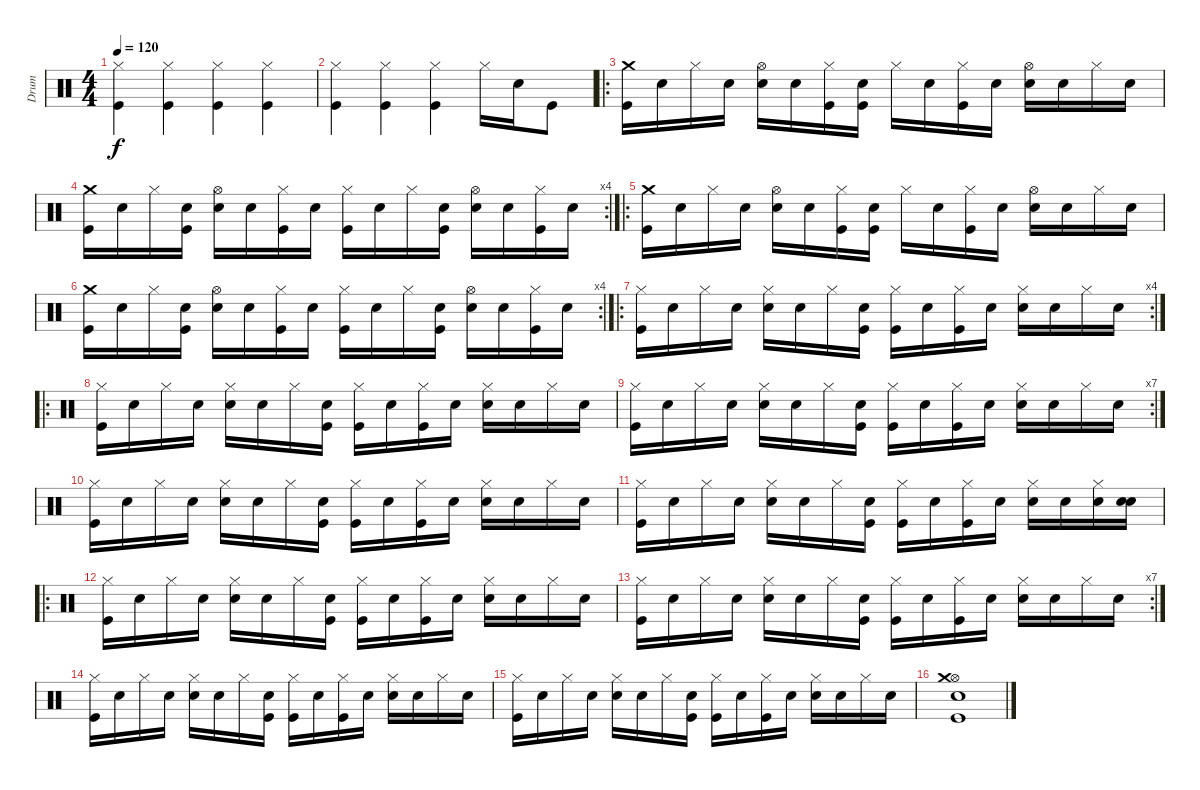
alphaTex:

\track ("Drum" "Drum") {instrument percussion}
\staff {score}
\articulation defaults
\ts (4 4)
\tempo 120
\clef neutral
\ks c
("Hi-Hat (closed)" "Kick (hit)").4{dy f} ("Hi-Hat (closed)" "Kick (hit)").4 ("Hi-Hat (closed)" "Kick (hit)").4 ("Hi-Hat (closed)" "Kick (hit)").4 |
("Hi-Hat (closed)" "Kick (hit)").4 ("Hi-Hat (closed)" "Kick (hit)").4 ("Hi-Hat (closed)" "Kick (hit)").4 "Hi-Hat (closed)".16 "Electric Snare (hit)".16 "Kick (hit)".8 |
\ro
("Crash medium (hit)" "Kick (hit)").16 "Snare (hit)".16 "Hi-Hat (closed)".16 "Snare (hit)".16 ("Hi-Hat (open)" "Snare (hit) 2").16 "Snare (hit)".16 ("Hi-Hat (closed)" "Kick (hit)").16 ("Snare (hit)" "Kick (hit)").16 "Hi-Hat (closed)".16 "Snare (hit)".16 ("Hi-Hat (closed)" "Kick (hit)").16 "Snare (hit)".16 ("Hi-Hat (open)" "Snare (hit) 2").16 "Snare (hit)".16 "Hi-Hat (closed)".16 "Snare (hit)".16 |
\rc 4
("Crash medium (hit)" "Kick (hit)").16 "Snare (hit)".16 "Hi-Hat (closed)".16 ("Snare (hit)" "Kick (hit)").16 ("Hi-Hat (open)" "Snare (hit) 2").16 "Snare (hit)".16 ("Hi-Hat (closed)" "Kick (hit)").16 "Snare (hit)".16 ("Hi-Hat (closed)" "Kick (hit)").16 "Snare (hit)".16 "Hi-Hat (closed)".16 ("Snare (hit)" "Kick (hit)").16 ("Hi-Hat (open)" "Snare (hit) 2").16 "Snare (hit)".16 ("Hi-Hat (closed)" "Kick (hit)").16 "Snare (hit)".16 |
\ro
("Crash medium (hit)" "Kick (hit)").16 "Snare (hit)".16 "Hi-Hat (closed)".16 "Snare (hit)".16 ("Hi-Hat (open)" "Snare (hit) 2").16 "Snare (hit)".16 ("Hi-Hat (closed)" "Kick (hit)").16 ("Snare (hit)" "Kick (hit)").16 "Hi-Hat (closed)".16 "Snare (hit)".16 ("Hi-Hat (closed)" "Kick (hit)").16 "Snare (hit)".16 ("Hi-Hat (open)" "Snare (hit) 2").16 "Snare (hit)".16 "Hi-Hat (closed)".16 "Snare (hit)".16 |
\rc 4
("Crash medium (hit)" "Kick (hit)").16 "Snare (hit)".16 "Hi-Hat (closed)".16 ("Snare (hit)" "Kick (hit)").16 ("Hi-Hat (open)" "Snare (hit) 2").16 "Snare (hit)".16 ("Hi-Hat (closed)" "Kick (hit)").16 "Snare (hit)".16 ("Hi-Hat (closed)" "Kick (hit)").16 "Snare (hit)".16 "Hi-Hat (closed)".16 ("Snare (hit)" "Kick (hit)").16 ("Hi-Hat (open)" "Snare (hit) 2").16 "Snare (hit)".16 ("Hi-Hat (closed)" "Kick (hit)").16 "Snare (hit)".16 |
\ro
\rc 4
("Hi-Hat (closed)" "Kick (hit)").16 "Snare (hit)".16 "Hi-Hat (closed)".16 "Snare (hit)".16 ("Hi-Hat (closed)" "Snare (hit) 2").16 "Snare (hit)".16 "Hi-Hat (closed)".16 ("Snare (hit)" "Kick (hit)").16 ("Hi-Hat (closed)" "Kick (hit)").16 "Snare (hit)".16 ("Hi-Hat (closed)" "Kick (hit)").16 "Snare (hit)".16 ("Hi-Hat (closed)" "Snare (hit) 2").16 "Snare (hit)".16 "Hi-Hat (closed)".16 "Snare (hit)".16 |
\ro
("Hi-Hat (closed)" "Kick (hit)").16 "Snare (hit)".16 "Hi-Hat (closed)".16 "Snare (hit)".16 ("Hi-Hat (closed)" "Snare (hit) 2").16 "Snare (hit)".16 "Hi-Hat (closed)".16 ("Snare (hit)" "Kick (hit)").16 ("Hi-Hat (closed)" "Kick (hit)").16 "Snare (hit)".16 ("Hi-Hat (closed)" "Kick (hit)").16 "Snare (hit)".16 ("Hi-Hat (closed)" "Snare (hit) 2").16 "Snare (hit)".16 "Hi-Hat (closed)".16 "Snare (hit)".16 |
\rc 7
("Hi-Hat (closed)" "Kick (hit)").16 "Snare (hit)".16 "Hi-Hat (closed)".16 "Snare (hit)".16 ("Hi-Hat (closed)" "Snare (hit) 2").16 "Snare (hit)".16 "Hi-Hat (closed)".16 ("Snare (hit)" "Kick (hit)").16 ("Hi-Hat (closed)" "Kick (hit)").16 "Snare (hit)".16 ("Hi-Hat (closed)" "Kick (hit)").16 "Snare (hit)".16 ("Hi-Hat (closed)" "Snare (hit) 2").16 "Snare (hit)".16 "Hi-Hat (closed)".16 "Snare (hit)".16 |
("Hi-Hat (closed)" "Kick (hit)").16 "Snare (hit)".16 "Hi-Hat (closed)".16 "Snare (hit)".16 ("Hi-Hat (closed)" "Snare (hit) 2").16 "Snare (hit)".16 "Hi-Hat (closed)".16 ("Snare (hit)" "Kick (hit)").16 ("Hi-Hat (closed)" "Kick (hit)").16 "Snare (hit)".16 ("Hi-Hat (closed)" "Kick (hit)").16 "Snare (hit)".16 ("Hi-Hat (closed)" "Snare (hit) 2").16 "Snare (hit)".16 "Hi-Hat (closed)".16 "Snare (hit)".16 |
("Hi-Hat (closed)" "Kick (hit)").16 "Snare (hit)".16 "Hi-Hat (closed)".16 "Snare (hit)".16 ("Hi-Hat (closed)" "Snare (hit) 2").16 "Snare (hit)".16 "Hi-Hat (closed)".16 ("Snare (hit)" "Kick (hit)").16 ("Hi-Hat (closed)" "Kick (hit)").16 "Snare (hit)".16 ("Hi-Hat (closed)" "Kick (hit)").16 "Snare (hit)".16 ("Hi-Hat (closed)" "Snare (hit) 2").16 "Snare (hit)".16 ("Hi-Hat (closed)" "Snare (hit) 2").16 ("Snare (hit)" "Snare (hit) 2").16 |
\ro
("Hi-Hat (closed)" "Kick (hit)").16 "Snare (hit)".16 "Hi-Hat (closed)".16 "Snare (hit)".16 ("Hi-Hat (closed)" "Snare (hit) 2").16 "Snare (hit)".16 "Hi-Hat (closed)".16 ("Snare (hit)" "Kick (hit)").16 ("Hi-Hat (closed)" "Kick (hit)").16 "Snare (hit)".16 ("Hi-Hat (closed)" "Kick (hit)").16 "Snare (hit)".16 ("Hi-Hat (closed)" "Snare (hit) 2").16 "Snare (hit)".16 "Hi-Hat (closed)".16 "Snare (hit)".16 |
\rc 7
("Hi-Hat (closed)" "Kick (hit)").16 "Snare (hit)".16 "Hi-Hat (closed)".16 "Snare (hit)".16 ("Hi-Hat (closed)" "Snare (hit) 2").16 "Snare (hit)".16 "Hi-Hat (closed)".16 ("Snare (hit)" "Kick (hit)").16 ("Hi-Hat (closed)" "Kick (hit)").16 "Snare (hit)".16 ("Hi-Hat (closed)" "Kick (hit)").16 "Snare (hit)".16 ("Hi-Hat (closed)" "Snare (hit) 2").16 "Snare (hit)".16 "Hi-Hat (closed)".16 "Snare (hit)".16 |
("Hi-Hat (closed)" "Kick (hit)").16 "Snare (hit)".16 "Hi-Hat (closed)".16 "Snare (hit)".16 ("Hi-Hat (closed)" "Snare (hit) 2").16 "Snare (hit)".16 "Hi-Hat (closed)".16 ("Snare (hit)" "Kick (hit)").16 ("Hi-Hat (closed)" "Kick (hit)").16 "Snare (hit)".16 ("Hi-Hat (closed)" "Kick (hit)").16 "Snare (hit)".16 ("Hi-Hat (closed)" "Snare (hit) 2").16 "Snare (hit)".16 "Hi-Hat (closed)".16 "Snare (hit)".16 |
("Hi-Hat (closed)" "Kick (hit)").16 "Snare (hit)".16 "Hi-Hat (closed)".16 "Snare (hit)".16 ("Hi-Hat (closed)" "Snare (hit) 2").16 "Snare (hit)".16 "Hi-Hat (closed)".16 ("Snare (hit)" "Kick (hit)").16 ("Hi-Hat (closed)" "Kick (hit)").16 "Snare (hit)".16 ("Hi-Hat (closed)" "Kick (hit)").16 "Snare (hit)".16 ("Hi-Hat (closed)" "Snare (hit) 2").16 "Snare (hit)".16 "Hi-Hat (closed)".16 "Snare (hit)".16 |
("Hi-Hat (open)" "Crash medium (hit)" "Snare (hit) 2" "Kick (hit)").1
